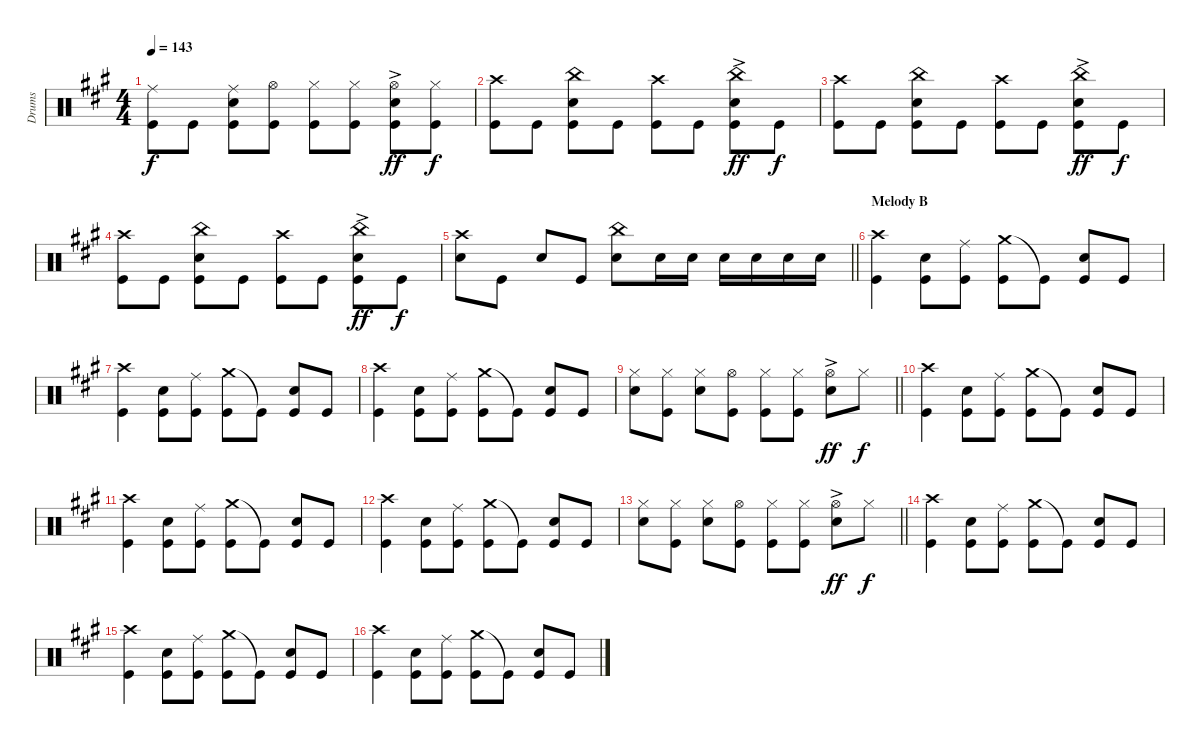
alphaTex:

\track ("Drums" "Drums") {instrument percussion}
\staff {score}
\articulation defaults
\ts (4 4)
\tempo 143
\clef neutral
\ks a
("Ride (middle)" "Kick (hit)").8{dy f} "Kick (hit)".8 ("Ride (middle)" "Snare (hit) 2" "Kick (hit)").8 ("Hi-Hat (open)" "Kick (hit)").8 ("Hi-Hat (closed)" "Kick (hit)").8 ("Hi-Hat (closed)" "Kick (hit)").8 ("Hi-Hat (open)" "Snare (hit) 2"{ac} "Kick (hit)").8{dy ff} ("Hi-Hat (closed)" "Kick (hit)").8{dy f} |
("Crash high (hit)" "Kick (hit)").8 "Kick (hit)".8 ("China (hit)" "Snare (hit) 2" "Kick (hit)").8 "Kick (hit)".8 ("Crash high (hit)" "Kick (hit)").8 "Kick (hit)".8 ("China (hit)" "Snare (hit) 2"{ac} "Kick (hit)").8{dy ff} "Kick (hit)".8{dy f} |
("Crash high (hit)" "Kick (hit)").8 "Kick (hit)".8 ("China (hit)" "Snare (hit) 2" "Kick (hit)").8 "Kick (hit)".8 ("Crash high (hit)" "Kick (hit)").8 "Kick (hit)".8 ("China (hit)" "Snare (hit) 2"{ac} "Kick (hit)").8{dy ff} "Kick (hit)".8{dy f} |
("Crash high (hit)" "Kick (hit)").8 "Kick (hit)".8 ("China (hit)" "Snare (hit) 2" "Kick (hit)").8 "Kick (hit)".8 ("Crash high (hit)" "Kick (hit)").8 "Kick (hit)".8 ("China (hit)" "Snare (hit) 2"{ac} "Kick (hit)").8{dy ff} "Kick (hit)".8{dy f} |
\barLineRight lightlight
("Crash high (hit)" "Snare (hit) 2").8 "Kick (hit)".8 "Snare (hit) 2".8 "Kick (hit)".8 ("China (hit)" "Snare (hit) 2").8 "Snare (hit) 2".16 "Snare (hit) 2".16 "Snare (hit) 2".16 "Snare (hit) 2".16 "Snare (hit) 2".16 "Snare (hit) 2".16 |
\section ("" "Melody B")
("Crash high (hit)" "Kick (hit)").4 ("Snare (hit) 2" "Kick (hit)").8 ("Ride (middle)" "Kick (hit)").8 ("Crash medium (hit)" "Kick (hit)").8 "Kick (hit)"{t}.8 ("Snare (hit) 2" "Kick (hit)").8 "Kick (hit)".8 |
("Crash high (hit)" "Kick (hit)").4 ("Snare (hit) 2" "Kick (hit)").8 ("Ride (middle)" "Kick (hit)").8 ("Crash medium (hit)" "Kick (hit)").8 "Kick (hit)"{t}.8 ("Snare (hit) 2" "Kick (hit)").8 "Kick (hit)".8 |
("Crash high (hit)" "Kick (hit)").4 ("Snare (hit) 2" "Kick (hit)").8 ("Ride (middle)" "Kick (hit)").8 ("Crash medium (hit)" "Kick (hit)").8 "Kick (hit)"{t}.8 ("Snare (hit) 2" "Kick (hit)").8 "Kick (hit)".8 |
\barLineRight lightlight
("Hi-Hat (closed)" "Snare (hit) 2").8 ("Hi-Hat (closed)" "Kick (hit)").8 ("Hi-Hat (closed)" "Snare (hit) 2").8 ("Hi-Hat (open)" "Kick (hit)").8 ("Hi-Hat (closed)" "Kick (hit)").8 ("Hi-Hat (closed)" "Kick (hit)").8 ("Hi-Hat (open)" "Snare (hit) 2"{ac}).8{dy ff} "Hi-Hat (closed)".8{dy f} |
\section ("" "")
("Crash high (hit)" "Kick (hit)").4 ("Snare (hit) 2" "Kick (hit)").8 ("Ride (middle)" "Kick (hit)").8 ("Crash medium (hit)" "Kick (hit)").8 "Kick (hit)"{t}.8 ("Snare (hit) 2" "Kick (hit)").8 "Kick (hit)".8 |
("Crash high (hit)" "Kick (hit)").4 ("Snare (hit) 2" "Kick (hit)").8 ("Ride (middle)" "Kick (hit)").8 ("Crash medium (hit)" "Kick (hit)").8 "Kick (hit)"{t}.8 ("Snare (hit) 2" "Kick (hit)").8 "Kick (hit)".8 |
("Crash high (hit)" "Kick (hit)").4 ("Snare (hit) 2" "Kick (hit)").8 ("Ride (middle)" "Kick (hit)").8 ("Crash medium (hit)" "Kick (hit)").8 "Kick (hit)"{t}.8 ("Snare (hit) 2" "Kick (hit)").8 "Kick (hit)".8 |
\barLineRight lightlight
("Hi-Hat (closed)" "Snare (hit) 2").8 ("Hi-Hat (closed)" "Kick (hit)").8 ("Hi-Hat (closed)" "Snare (hit) 2").8 ("Hi-Hat (open)" "Kick (hit)").8 ("Hi-Hat (closed)" "Kick (hit)").8 ("Hi-Hat (closed)" "Kick (hit)").8 ("Hi-Hat (open)" "Snare (hit) 2"{ac}).8{dy ff} "Hi-Hat (closed)".8{dy f} |
("Crash high (hit)" "Kick (hit)").4 ("Snare (hit) 2" "Kick (hit)").8 ("Ride (middle)" "Kick (hit)").8 ("Crash medium (hit)" "Kick (hit)").8 "Kick (hit)"{t}.8 ("Snare (hit) 2" "Kick (hit)").8 "Kick (hit)".8 |
("Crash high (hit)" "Kick (hit)").4 ("Snare (hit) 2" "Kick (hit)").8 ("Ride (middle)" "Kick (hit)").8 ("Crash medium (hit)" "Kick (hit)").8 "Kick (hit)"{t}.8 ("Snare (hit) 2" "Kick (hit)").8 "Kick (hit)".8 |
("Crash high (hit)" "Kick (hit)").4 ("Snare (hit) 2" "Kick (hit)").8 ("Ride (middle)" "Kick (hit)").8 ("Crash medium (hit)" "Kick (hit)").8 "Kick (hit)"{t}.8 ("Snare (hit) 2" "Kick (hit)").8 "Kick (hit)".8
